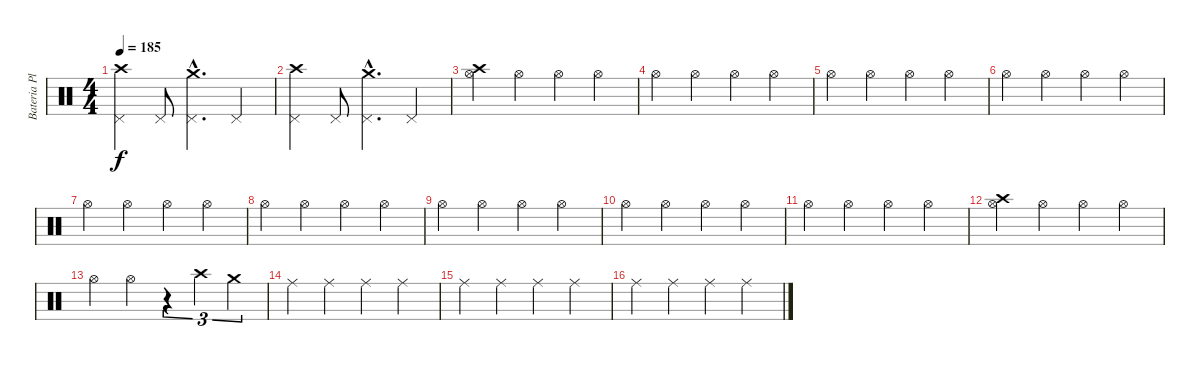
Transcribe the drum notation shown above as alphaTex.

\track ("Bateria Platos" "Bateria Pl") {instrument percussion}
\staff {score}
\articulation defaults
\ts (4 4)
\tempo 185
\clef neutral
\ks c
("Crash high (hit)" "Pedal Hi-Hat (hit)").4{dy f} "Pedal Hi-Hat (hit)".8 ("Crash medium (hit)"{hac} "Pedal Hi-Hat (hit)"{hac}).4{d} "Pedal Hi-Hat (hit)".4 |
("Crash high (hit)" "Pedal Hi-Hat (hit)").4 "Pedal Hi-Hat (hit)".8 ("Crash medium (hit)"{hac} "Pedal Hi-Hat (hit)"{hac}).4{d} "Pedal Hi-Hat (hit)".4 |
("Crash high (hit)" "Hi-Hat (open)").4 "Hi-Hat (open)".4 "Hi-Hat (open)".4 "Hi-Hat (open)".4 |
"Hi-Hat (open)".4 "Hi-Hat (open)".4 "Hi-Hat (open)".4 "Hi-Hat (open)".4 |
"Hi-Hat (open)".4 "Hi-Hat (open)".4 "Hi-Hat (open)".4 "Hi-Hat (open)".4 |
"Hi-Hat (open)".4 "Hi-Hat (open)".4 "Hi-Hat (open)".4 "Hi-Hat (open)".4 |
"Hi-Hat (open)".4 "Hi-Hat (open)".4 "Hi-Hat (open)".4 "Hi-Hat (open)".4 |
"Hi-Hat (open)".4 "Hi-Hat (open)".4 "Hi-Hat (open)".4 "Hi-Hat (open)".4 |
"Hi-Hat (open)".4 "Hi-Hat (open)".4 "Hi-Hat (open)".4 "Hi-Hat (open)".4 |
"Hi-Hat (open)".4 "Hi-Hat (open)".4 "Hi-Hat (open)".4 "Hi-Hat (open)".4 |
"Hi-Hat (open)".4 "Hi-Hat (open)".4 "Hi-Hat (open)".4 "Hi-Hat (open)".4 |
("Crash high (hit)" "Hi-Hat (open)").4 "Hi-Hat (open)".4 "Hi-Hat (open)".4 "Hi-Hat (open)".4 |
"Hi-Hat (open)".4 "Hi-Hat (open)".4 r.4{tu (3 2)} "Crash high (hit)".4{tu (3 2)} "Crash medium (hit)".4{tu (3 2)} |
"Ride (middle)".4 "Ride (middle)".4 "Ride (middle)".4 "Ride (middle)".4 |
"Ride (middle)".4 "Ride (middle)".4 "Ride (middle)".4 "Ride (middle)".4 |
"Ride (middle)".4 "Ride (middle)".4 "Ride (middle)".4 "Ride (middle)".4
